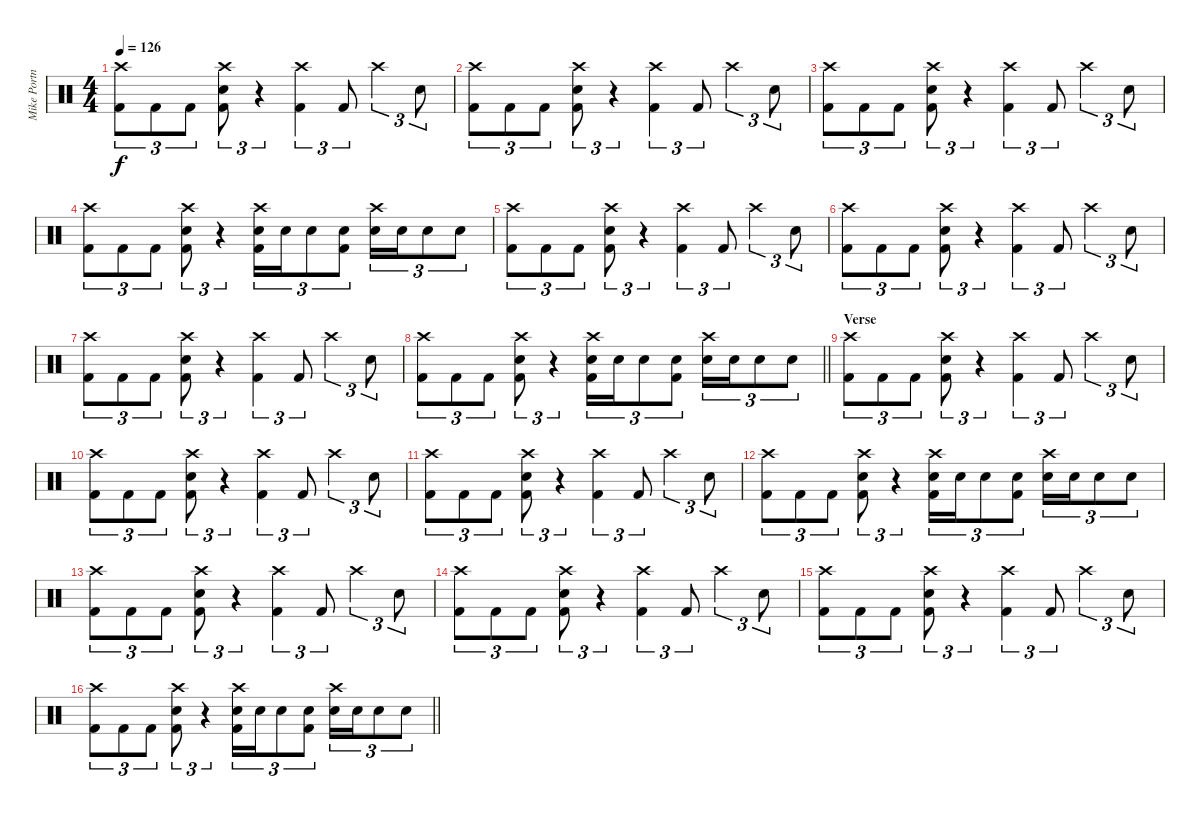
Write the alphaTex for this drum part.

\track ("Mike Portnoy" "Mike Portn") {instrument percussion}
\staff {score}
\articulation defaults
\ts (4 4)
\tempo 126
\clef neutral
\ks c
("Crash high (hit)" "Kick (hit) 2").8{tu (3 2) dy f} "Kick (hit) 2".8{tu (3 2)} "Kick (hit) 2".8{tu (3 2)} ("Crash high (hit)" "Electric Snare (hit)" "Kick (hit) 2").8{tu (3 2)} r.4{tu (3 2)} ("Crash high (hit)" "Kick (hit) 2").4{tu (3 2)} "Kick (hit) 2".8{tu (3 2)} "Crash high (hit)".4{tu (3 2)} "Electric Snare (hit)".8{tu (3 2)} |
("Crash high (hit)" "Kick (hit) 2").8{tu (3 2)} "Kick (hit) 2".8{tu (3 2)} "Kick (hit) 2".8{tu (3 2)} ("Crash high (hit)" "Electric Snare (hit)" "Kick (hit) 2").8{tu (3 2)} r.4{tu (3 2)} ("Crash high (hit)" "Kick (hit) 2").4{tu (3 2)} "Kick (hit) 2".8{tu (3 2)} "Crash high (hit)".4{tu (3 2)} "Electric Snare (hit)".8{tu (3 2)} |
("Crash high (hit)" "Kick (hit) 2").8{tu (3 2)} "Kick (hit) 2".8{tu (3 2)} "Kick (hit) 2".8{tu (3 2)} ("Crash high (hit)" "Electric Snare (hit)" "Kick (hit) 2").8{tu (3 2)} r.4{tu (3 2)} ("Crash high (hit)" "Kick (hit) 2").4{tu (3 2)} "Kick (hit) 2".8{tu (3 2)} "Crash high (hit)".4{tu (3 2)} "Electric Snare (hit)".8{tu (3 2)} |
("Crash high (hit)" "Kick (hit) 2").8{tu (3 2)} "Kick (hit) 2".8{tu (3 2)} "Kick (hit) 2".8{tu (3 2)} ("Crash high (hit)" "Electric Snare (hit)" "Kick (hit) 2").8{tu (3 2)} r.4{tu (3 2)} ("Crash high (hit)" "Electric Snare (hit)" "Kick (hit) 2").16{tu (3 2)} "Electric Snare (hit)".16{tu (3 2)} "Electric Snare (hit)".8{tu (3 2)} ("Electric Snare (hit)" "Kick (hit) 2").8{tu (3 2)} ("Crash high (hit)" "Electric Snare (hit)").16{tu (3 2)} "Electric Snare (hit)".16{tu (3 2)} "Electric Snare (hit)".8{tu (3 2)} "Electric Snare (hit)".8{tu (3 2)} |
("Crash high (hit)" "Kick (hit) 2").8{tu (3 2)} "Kick (hit) 2".8{tu (3 2)} "Kick (hit) 2".8{tu (3 2)} ("Crash high (hit)" "Electric Snare (hit)" "Kick (hit) 2").8{tu (3 2)} r.4{tu (3 2)} ("Crash high (hit)" "Kick (hit) 2").4{tu (3 2)} "Kick (hit) 2".8{tu (3 2)} "Crash high (hit)".4{tu (3 2)} "Electric Snare (hit)".8{tu (3 2)} |
("Crash high (hit)" "Kick (hit) 2").8{tu (3 2)} "Kick (hit) 2".8{tu (3 2)} "Kick (hit) 2".8{tu (3 2)} ("Crash high (hit)" "Electric Snare (hit)" "Kick (hit) 2").8{tu (3 2)} r.4{tu (3 2)} ("Crash high (hit)" "Kick (hit) 2").4{tu (3 2)} "Kick (hit) 2".8{tu (3 2)} "Crash high (hit)".4{tu (3 2)} "Electric Snare (hit)".8{tu (3 2)} |
("Crash high (hit)" "Kick (hit) 2").8{tu (3 2)} "Kick (hit) 2".8{tu (3 2)} "Kick (hit) 2".8{tu (3 2)} ("Crash high (hit)" "Electric Snare (hit)" "Kick (hit) 2").8{tu (3 2)} r.4{tu (3 2)} ("Crash high (hit)" "Kick (hit) 2").4{tu (3 2)} "Kick (hit) 2".8{tu (3 2)} "Crash high (hit)".4{tu (3 2)} "Electric Snare (hit)".8{tu (3 2)} |
\barLineRight lightlight
("Crash high (hit)" "Kick (hit) 2").8{tu (3 2)} "Kick (hit) 2".8{tu (3 2)} "Kick (hit) 2".8{tu (3 2)} ("Crash high (hit)" "Electric Snare (hit)" "Kick (hit) 2").8{tu (3 2)} r.4{tu (3 2)} ("Crash high (hit)" "Electric Snare (hit)" "Kick (hit) 2").16{tu (3 2)} "Electric Snare (hit)".16{tu (3 2)} "Electric Snare (hit)".8{tu (3 2)} ("Electric Snare (hit)" "Kick (hit) 2").8{tu (3 2)} ("Crash high (hit)" "Electric Snare (hit)").16{tu (3 2)} "Electric Snare (hit)".16{tu (3 2)} "Electric Snare (hit)".8{tu (3 2)} "Electric Snare (hit)".8{tu (3 2)} |
\section ("" "Verse")
("Crash high (hit)" "Kick (hit) 2").8{tu (3 2)} "Kick (hit) 2".8{tu (3 2)} "Kick (hit) 2".8{tu (3 2)} ("Crash high (hit)" "Electric Snare (hit)" "Kick (hit) 2").8{tu (3 2)} r.4{tu (3 2)} ("Crash high (hit)" "Kick (hit) 2").4{tu (3 2)} "Kick (hit) 2".8{tu (3 2)} "Crash high (hit)".4{tu (3 2)} "Electric Snare (hit)".8{tu (3 2)} |
("Crash high (hit)" "Kick (hit) 2").8{tu (3 2)} "Kick (hit) 2".8{tu (3 2)} "Kick (hit) 2".8{tu (3 2)} ("Crash high (hit)" "Electric Snare (hit)" "Kick (hit) 2").8{tu (3 2)} r.4{tu (3 2)} ("Crash high (hit)" "Kick (hit) 2").4{tu (3 2)} "Kick (hit) 2".8{tu (3 2)} "Crash high (hit)".4{tu (3 2)} "Electric Snare (hit)".8{tu (3 2)} |
("Crash high (hit)" "Kick (hit) 2").8{tu (3 2)} "Kick (hit) 2".8{tu (3 2)} "Kick (hit) 2".8{tu (3 2)} ("Crash high (hit)" "Electric Snare (hit)" "Kick (hit) 2").8{tu (3 2)} r.4{tu (3 2)} ("Crash high (hit)" "Kick (hit) 2").4{tu (3 2)} "Kick (hit) 2".8{tu (3 2)} "Crash high (hit)".4{tu (3 2)} "Electric Snare (hit)".8{tu (3 2)} |
("Crash high (hit)" "Kick (hit) 2").8{tu (3 2)} "Kick (hit) 2".8{tu (3 2)} "Kick (hit) 2".8{tu (3 2)} ("Crash high (hit)" "Electric Snare (hit)" "Kick (hit) 2").8{tu (3 2)} r.4{tu (3 2)} ("Crash high (hit)" "Electric Snare (hit)" "Kick (hit) 2").16{tu (3 2)} "Electric Snare (hit)".16{tu (3 2)} "Electric Snare (hit)".8{tu (3 2)} ("Electric Snare (hit)" "Kick (hit) 2").8{tu (3 2)} ("Crash high (hit)" "Electric Snare (hit)").16{tu (3 2)} "Electric Snare (hit)".16{tu (3 2)} "Electric Snare (hit)".8{tu (3 2)} "Electric Snare (hit)".8{tu (3 2)} |
("Crash high (hit)" "Kick (hit) 2").8{tu (3 2)} "Kick (hit) 2".8{tu (3 2)} "Kick (hit) 2".8{tu (3 2)} ("Crash high (hit)" "Electric Snare (hit)" "Kick (hit) 2").8{tu (3 2)} r.4{tu (3 2)} ("Crash high (hit)" "Kick (hit) 2").4{tu (3 2)} "Kick (hit) 2".8{tu (3 2)} "Crash high (hit)".4{tu (3 2)} "Electric Snare (hit)".8{tu (3 2)} |
("Crash high (hit)" "Kick (hit) 2").8{tu (3 2)} "Kick (hit) 2".8{tu (3 2)} "Kick (hit) 2".8{tu (3 2)} ("Crash high (hit)" "Electric Snare (hit)" "Kick (hit) 2").8{tu (3 2)} r.4{tu (3 2)} ("Crash high (hit)" "Kick (hit) 2").4{tu (3 2)} "Kick (hit) 2".8{tu (3 2)} "Crash high (hit)".4{tu (3 2)} "Electric Snare (hit)".8{tu (3 2)} |
("Crash high (hit)" "Kick (hit) 2").8{tu (3 2)} "Kick (hit) 2".8{tu (3 2)} "Kick (hit) 2".8{tu (3 2)} ("Crash high (hit)" "Electric Snare (hit)" "Kick (hit) 2").8{tu (3 2)} r.4{tu (3 2)} ("Crash high (hit)" "Kick (hit) 2").4{tu (3 2)} "Kick (hit) 2".8{tu (3 2)} "Crash high (hit)".4{tu (3 2)} "Electric Snare (hit)".8{tu (3 2)} |
\barLineRight lightlight
("Crash high (hit)" "Kick (hit) 2").8{tu (3 2)} "Kick (hit) 2".8{tu (3 2)} "Kick (hit) 2".8{tu (3 2)} ("Crash high (hit)" "Electric Snare (hit)" "Kick (hit) 2").8{tu (3 2)} r.4{tu (3 2)} ("Crash high (hit)" "Electric Snare (hit)" "Kick (hit) 2").16{tu (3 2)} "Electric Snare (hit)".16{tu (3 2)} "Electric Snare (hit)".8{tu (3 2)} ("Electric Snare (hit)" "Kick (hit) 2").8{tu (3 2)} ("Crash high (hit)" "Electric Snare (hit)").16{tu (3 2)} "Electric Snare (hit)".16{tu (3 2)} "Electric Snare (hit)".8{tu (3 2)} "Electric Snare (hit)".8{tu (3 2)}
